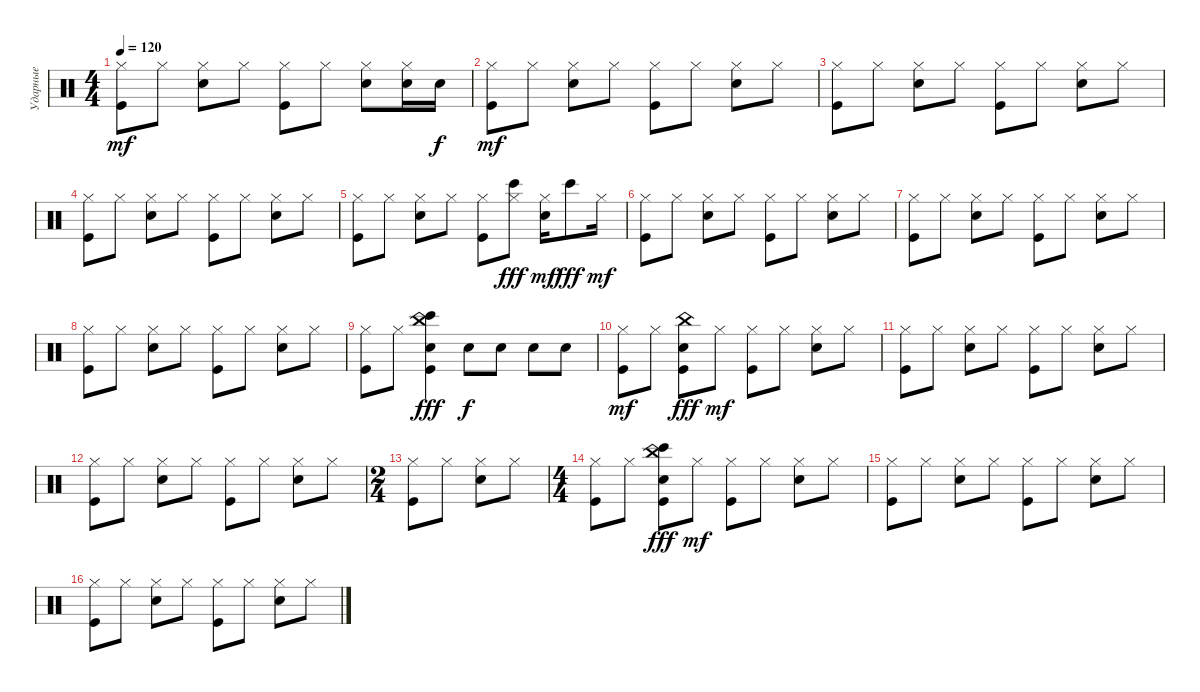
\track ("Ударные" "Ударные") {instrument percussion}
\staff {score}
\articulation defaults
\ts (4 4)
\tempo 120
\clef neutral
\ks c
("Kick (hit)" "Hi-Hat (closed)").8{dy mf} "Hi-Hat (closed)".8 ("Snare (hit) 2" "Hi-Hat (closed)").8 "Hi-Hat (closed)".8 ("Kick (hit)" "Hi-Hat (closed)").8 "Hi-Hat (closed)".8 ("Snare (hit) 2" "Hi-Hat (closed)").8 ("Hi-Hat (closed)" "Snare (hit) 2").16 "Snare (hit) 2".16{dy f} |
("Kick (hit)" "Hi-Hat (closed)").8{dy mf} "Hi-Hat (closed)".8 ("Snare (hit) 2" "Hi-Hat (closed)").8 "Hi-Hat (closed)".8 ("Kick (hit)" "Hi-Hat (closed)").8 "Hi-Hat (closed)".8 ("Snare (hit) 2" "Hi-Hat (closed)").8 "Hi-Hat (closed)".8 |
("Kick (hit)" "Hi-Hat (closed)").8 "Hi-Hat (closed)".8 ("Snare (hit) 2" "Hi-Hat (closed)").8 "Hi-Hat (closed)".8 ("Kick (hit)" "Hi-Hat (closed)").8 "Hi-Hat (closed)".8 ("Snare (hit) 2" "Hi-Hat (closed)").8 "Hi-Hat (closed)".8 |
("Kick (hit)" "Hi-Hat (closed)").8 "Hi-Hat (closed)".8 ("Snare (hit) 2" "Hi-Hat (closed)").8 "Hi-Hat (closed)".8 ("Kick (hit)" "Hi-Hat (closed)").8 "Hi-Hat (closed)".8 ("Snare (hit) 2" "Hi-Hat (closed)").8 "Hi-Hat (closed)".8 |
("Kick (hit)" "Hi-Hat (closed)").8 "Hi-Hat (closed)".8 ("Snare (hit) 2" "Hi-Hat (closed)").8 "Hi-Hat (closed)".8 ("Kick (hit)" "Hi-Hat (closed)").8 ("Hi-Hat (closed)" "Bongo High (hit)").8{dy fff} ("Snare (hit) 2" "Hi-Hat (closed)").16{dy mf} "Bongo High (hit)".8{dy fff} "Hi-Hat (closed)".16{dy mf} |
("Kick (hit)" "Hi-Hat (closed)").8 "Hi-Hat (closed)".8 ("Snare (hit) 2" "Hi-Hat (closed)").8 "Hi-Hat (closed)".8 ("Kick (hit)" "Hi-Hat (closed)").8 "Hi-Hat (closed)".8 ("Snare (hit) 2" "Hi-Hat (closed)").8 "Hi-Hat (closed)".8 |
("Kick (hit)" "Hi-Hat (closed)").8 "Hi-Hat (closed)".8 ("Snare (hit) 2" "Hi-Hat (closed)").8 "Hi-Hat (closed)".8 ("Kick (hit)" "Hi-Hat (closed)").8 "Hi-Hat (closed)".8 ("Snare (hit) 2" "Hi-Hat (closed)").8 "Hi-Hat (closed)".8 |
("Kick (hit)" "Hi-Hat (closed)").8 "Hi-Hat (closed)".8 ("Snare (hit) 2" "Hi-Hat (closed)").8 "Hi-Hat (closed)".8 ("Kick (hit)" "Hi-Hat (closed)").8 "Hi-Hat (closed)".8 ("Snare (hit) 2" "Hi-Hat (closed)").8 "Hi-Hat (closed)".8 |
("Kick (hit)" "Hi-Hat (closed)").8 "Hi-Hat (closed)".8 ("Kick (hit)" "Hand Clap (hit)" "China (hit)" "Bongo High (hit)").4{dy fff} "Snare (hit) 2".8{dy f} "Snare (hit) 2".8 "Snare (hit) 2".8 "Snare (hit) 2".8 |
("Kick (hit)" "Hi-Hat (closed)").8{dy mf} "Hi-Hat (closed)".8 ("Snare (hit) 2" "China (hit)" "Kick (hit)").8{dy fff} "Hi-Hat (closed)".8{dy mf} ("Kick (hit)" "Hi-Hat (closed)").8 "Hi-Hat (closed)".8 ("Snare (hit) 2" "Hi-Hat (closed)").8 "Hi-Hat (closed)".8 |
("Kick (hit)" "Hi-Hat (closed)").8 "Hi-Hat (closed)".8 ("Snare (hit) 2" "Hi-Hat (closed)").8 "Hi-Hat (closed)".8 ("Kick (hit)" "Hi-Hat (closed)").8 "Hi-Hat (closed)".8 ("Snare (hit) 2" "Hi-Hat (closed)").8 "Hi-Hat (closed)".8 |
("Kick (hit)" "Hi-Hat (closed)").8 "Hi-Hat (closed)".8 ("Snare (hit) 2" "Hi-Hat (closed)").8 "Hi-Hat (closed)".8 ("Kick (hit)" "Hi-Hat (closed)").8 "Hi-Hat (closed)".8 ("Snare (hit) 2" "Hi-Hat (closed)").8 "Hi-Hat (closed)".8 |
\ts (2 4)
("Kick (hit)" "Hi-Hat (closed)").8 "Hi-Hat (closed)".8 ("Snare (hit) 2" "Hi-Hat (closed)").8 "Hi-Hat (closed)".8 |
\ts (4 4)
("Kick (hit)" "Hi-Hat (closed)").8 "Hi-Hat (closed)".8 ("Snare (hit) 2" "China (hit)" "Kick (hit)" "Bongo High (hit)").8{dy fff} "Hi-Hat (closed)".8{dy mf} ("Kick (hit)" "Hi-Hat (closed)").8 "Hi-Hat (closed)".8 ("Snare (hit) 2" "Hi-Hat (closed)").8 "Hi-Hat (closed)".8 |
("Kick (hit)" "Hi-Hat (closed)").8 "Hi-Hat (closed)".8 ("Snare (hit) 2" "Hi-Hat (closed)").8 "Hi-Hat (closed)".8 ("Kick (hit)" "Hi-Hat (closed)").8 "Hi-Hat (closed)".8 ("Snare (hit) 2" "Hi-Hat (closed)").8 "Hi-Hat (closed)".8 |
("Kick (hit)" "Hi-Hat (closed)").8 "Hi-Hat (closed)".8 ("Snare (hit) 2" "Hi-Hat (closed)").8 "Hi-Hat (closed)".8 ("Kick (hit)" "Hi-Hat (closed)").8 "Hi-Hat (closed)".8 ("Snare (hit) 2" "Hi-Hat (closed)").8 "Hi-Hat (closed)".8
